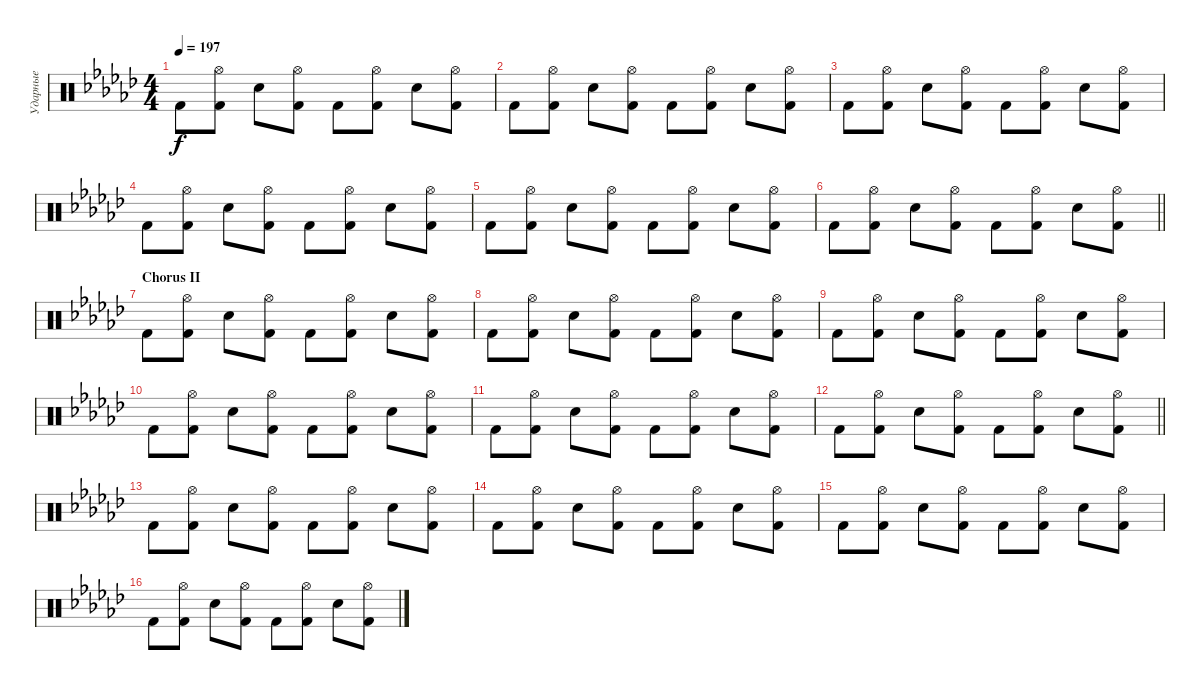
\track ("Ударные" "Ударные") {instrument percussion}
\staff {score}
\articulation defaults
\ts (4 4)
\tempo 197
\clef neutral
\ks gb "Kick (hit) 2".8{dy f}
("Hi-Hat (open)" "Kick (hit) 2").8 "Snare (hit) 2".8 ("Hi-Hat (open)" "Kick (hit) 2").8 "Kick (hit) 2".8 ("Hi-Hat (open)" "Kick (hit) 2").8 "Snare (hit) 2".8 ("Hi-Hat (open)" "Kick (hit) 2").8 |
"Kick (hit) 2".8 ("Hi-Hat (open)" "Kick (hit) 2").8 "Snare (hit) 2".8 ("Hi-Hat (open)" "Kick (hit) 2").8 "Kick (hit) 2".8 ("Hi-Hat (open)" "Kick (hit) 2").8 "Snare (hit) 2".8 ("Hi-Hat (open)" "Kick (hit) 2").8 |
"Kick (hit) 2".8 ("Hi-Hat (open)" "Kick (hit) 2").8 "Snare (hit) 2".8 ("Hi-Hat (open)" "Kick (hit) 2").8 "Kick (hit) 2".8 ("Hi-Hat (open)" "Kick (hit) 2").8 "Snare (hit) 2".8 ("Hi-Hat (open)" "Kick (hit) 2").8 |
"Kick (hit) 2".8 ("Hi-Hat (open)" "Kick (hit) 2").8 "Snare (hit) 2".8 ("Hi-Hat (open)" "Kick (hit) 2").8 "Kick (hit) 2".8 ("Hi-Hat (open)" "Kick (hit) 2").8 "Snare (hit) 2".8 ("Hi-Hat (open)" "Kick (hit) 2").8 |
"Kick (hit) 2".8 ("Hi-Hat (open)" "Kick (hit) 2").8 "Snare (hit) 2".8 ("Hi-Hat (open)" "Kick (hit) 2").8 "Kick (hit) 2".8 ("Hi-Hat (open)" "Kick (hit) 2").8 "Snare (hit) 2".8 ("Hi-Hat (open)" "Kick (hit) 2").8 |
\barLineRight lightlight "Kick (hit) 2".8
("Hi-Hat (open)" "Kick (hit) 2").8 "Snare (hit) 2".8 ("Hi-Hat (open)" "Kick (hit) 2").8 "Kick (hit) 2".8 ("Hi-Hat (open)" "Kick (hit) 2").8 "Snare (hit) 2".8 ("Hi-Hat (open)" "Kick (hit) 2").8 |
\section ("" "Chorus II")
"Kick (hit) 2".8 ("Hi-Hat (open)" "Kick (hit) 2").8 "Snare (hit) 2".8 ("Hi-Hat (open)" "Kick (hit) 2").8 "Kick (hit) 2".8 ("Hi-Hat (open)" "Kick (hit) 2").8 "Snare (hit) 2".8 ("Hi-Hat (open)" "Kick (hit) 2").8 |
"Kick (hit) 2".8 ("Hi-Hat (open)" "Kick (hit) 2").8 "Snare (hit) 2".8 ("Hi-Hat (open)" "Kick (hit) 2").8 "Kick (hit) 2".8 ("Hi-Hat (open)" "Kick (hit) 2").8 "Snare (hit) 2".8 ("Hi-Hat (open)" "Kick (hit) 2").8 |
"Kick (hit) 2".8 ("Hi-Hat (open)" "Kick (hit) 2").8 "Snare (hit) 2".8 ("Hi-Hat (open)" "Kick (hit) 2").8 "Kick (hit) 2".8 ("Hi-Hat (open)" "Kick (hit) 2").8 "Snare (hit) 2".8 ("Hi-Hat (open)" "Kick (hit) 2").8 |
"Kick (hit) 2".8 ("Hi-Hat (open)" "Kick (hit) 2").8 "Snare (hit) 2".8 ("Hi-Hat (open)" "Kick (hit) 2").8 "Kick (hit) 2".8 ("Hi-Hat (open)" "Kick (hit) 2").8 "Snare (hit) 2".8 ("Hi-Hat (open)" "Kick (hit) 2").8 |
"Kick (hit) 2".8 ("Hi-Hat (open)" "Kick (hit) 2").8 "Snare (hit) 2".8 ("Hi-Hat (open)" "Kick (hit) 2").8 "Kick (hit) 2".8 ("Hi-Hat (open)" "Kick (hit) 2").8 "Snare (hit) 2".8 ("Hi-Hat (open)" "Kick (hit) 2").8 |
\barLineRight lightlight "Kick (hit) 2".8
("Hi-Hat (open)" "Kick (hit) 2").8 "Snare (hit) 2".8 ("Hi-Hat (open)" "Kick (hit) 2").8 "Kick (hit) 2".8 ("Hi-Hat (open)" "Kick (hit) 2").8 "Snare (hit) 2".8 ("Hi-Hat (open)" "Kick (hit) 2").8 |
"Kick (hit) 2".8 ("Hi-Hat (open)" "Kick (hit) 2").8 "Snare (hit) 2".8 ("Hi-Hat (open)" "Kick (hit) 2").8 "Kick (hit) 2".8 ("Hi-Hat (open)" "Kick (hit) 2").8 "Snare (hit) 2".8 ("Hi-Hat (open)" "Kick (hit) 2").8 |
"Kick (hit) 2".8 ("Hi-Hat (open)" "Kick (hit) 2").8 "Snare (hit) 2".8 ("Hi-Hat (open)" "Kick (hit) 2").8 "Kick (hit) 2".8 ("Hi-Hat (open)" "Kick (hit) 2").8 "Snare (hit) 2".8 ("Hi-Hat (open)" "Kick (hit) 2").8 |
"Kick (hit) 2".8 ("Hi-Hat (open)" "Kick (hit) 2").8 "Snare (hit) 2".8 ("Hi-Hat (open)" "Kick (hit) 2").8 "Kick (hit) 2".8 ("Hi-Hat (open)" "Kick (hit) 2").8 "Snare (hit) 2".8 ("Hi-Hat (open)" "Kick (hit) 2").8 |
"Kick (hit) 2".8 ("Hi-Hat (open)" "Kick (hit) 2").8 "Snare (hit) 2".8 ("Hi-Hat (open)" "Kick (hit) 2").8 "Kick (hit) 2".8 ("Hi-Hat (open)" "Kick (hit) 2").8 "Snare (hit) 2".8 ("Hi-Hat (open)" "Kick (hit) 2").8
